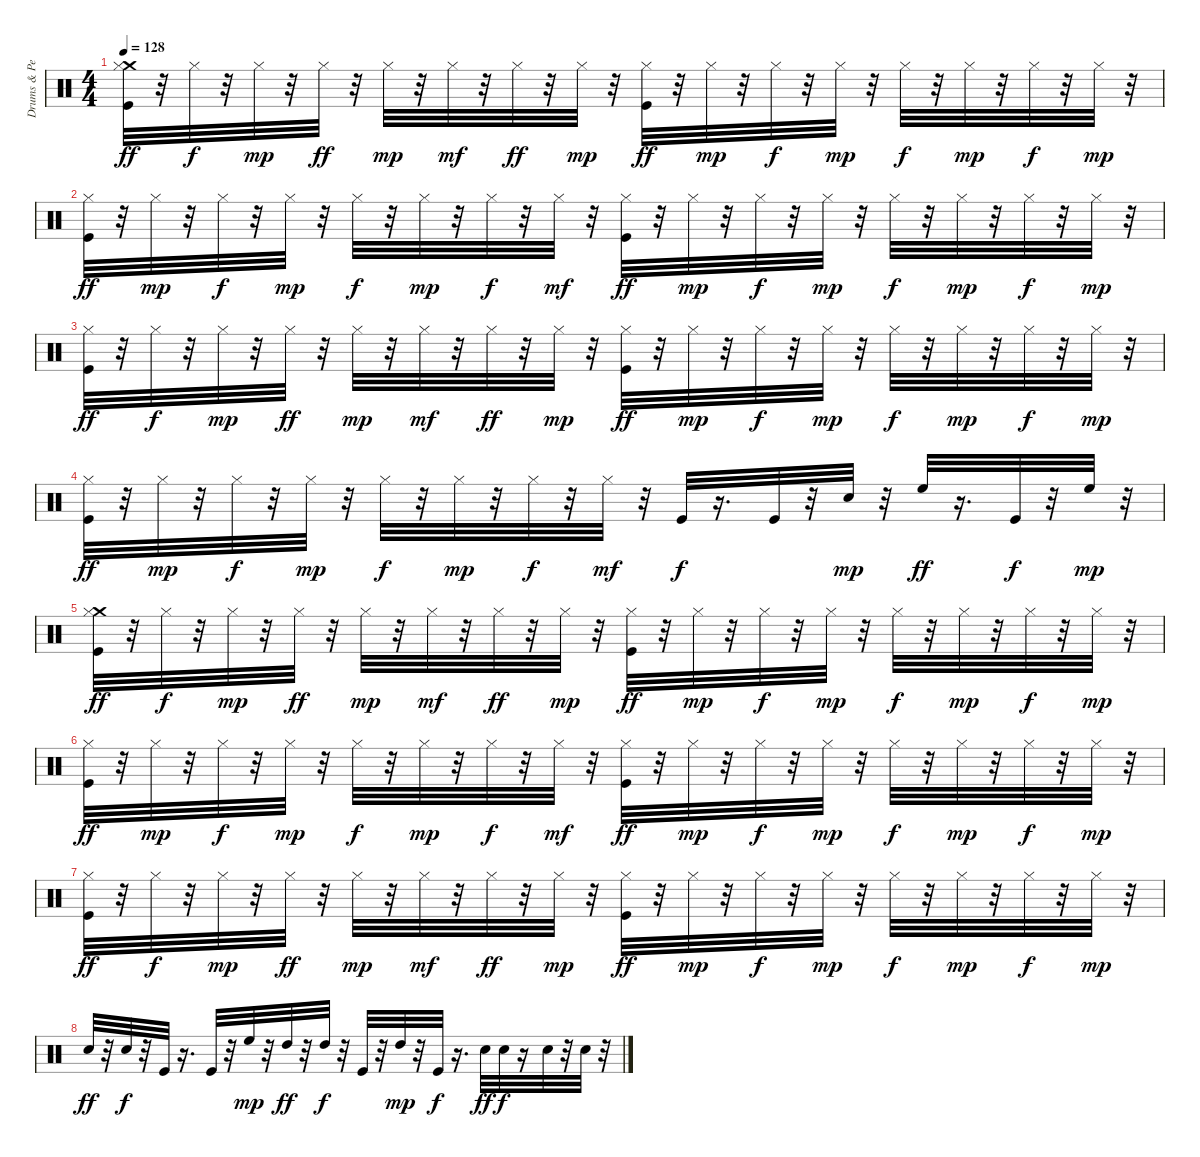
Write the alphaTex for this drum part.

\track ("Drums & Percussion" "Drums & Pe") {instrument percussion}
\staff {score}
\articulation defaults
\ts (4 4)
\tempo 128
\clef neutral
\ks c
("Crash medium (hit)" "Kick (hit)" "Hi-Hat (closed)").32{dy ff} r.32 "Hi-Hat (closed)".32{dy f} r.32 "Hi-Hat (closed)".32{dy mp} r.32 "Hi-Hat (closed)".32{dy ff} r.32 "Hi-Hat (closed)".32{dy mp} r.32 "Hi-Hat (closed)".32{dy mf} r.32 "Hi-Hat (closed)".32{dy ff} r.32 "Hi-Hat (closed)".32{dy mp} r.32 ("Kick (hit)" "Hi-Hat (closed)").32{dy ff} r.32 "Hi-Hat (closed)".32{dy mp} r.32 "Hi-Hat (closed)".32{dy f} r.32 "Hi-Hat (closed)".32{dy mp} r.32 "Hi-Hat (closed)".32{dy f} r.32 "Hi-Hat (closed)".32{dy mp} r.32 "Hi-Hat (closed)".32{dy f} r.32 "Hi-Hat (closed)".32{dy mp} r.32 |
("Kick (hit)" "Hi-Hat (closed)").32{dy ff} r.32 "Hi-Hat (closed)".32{dy mp} r.32 "Hi-Hat (closed)".32{dy f} r.32 "Hi-Hat (closed)".32{dy mp} r.32 "Hi-Hat (closed)".32{dy f} r.32 "Hi-Hat (closed)".32{dy mp} r.32 "Hi-Hat (closed)".32{dy f} r.32 "Hi-Hat (closed)".32{dy mf} r.32 ("Kick (hit)" "Hi-Hat (closed)").32{dy ff} r.32 "Hi-Hat (closed)".32{dy mp} r.32 "Hi-Hat (closed)".32{dy f} r.32 "Hi-Hat (closed)".32{dy mp} r.32 "Hi-Hat (closed)".32{dy f} r.32 "Hi-Hat (closed)".32{dy mp} r.32 "Hi-Hat (closed)".32{dy f} r.32 "Hi-Hat (closed)".32{dy mp} r.32 |
("Kick (hit)" "Hi-Hat (closed)").32{dy ff} r.32 "Hi-Hat (closed)".32{dy f} r.32 "Hi-Hat (closed)".32{dy mp} r.32 "Hi-Hat (closed)".32{dy ff} r.32 "Hi-Hat (closed)".32{dy mp} r.32 "Hi-Hat (closed)".32{dy mf} r.32 "Hi-Hat (closed)".32{dy ff} r.32 "Hi-Hat (closed)".32{dy mp} r.32 ("Kick (hit)" "Hi-Hat (closed)").32{dy ff} r.32 "Hi-Hat (closed)".32{dy mp} r.32 "Hi-Hat (closed)".32{dy f} r.32 "Hi-Hat (closed)".32{dy mp} r.32 "Hi-Hat (closed)".32{dy f} r.32 "Hi-Hat (closed)".32{dy mp} r.32 "Hi-Hat (closed)".32{dy f} r.32 "Hi-Hat (closed)".32{dy mp} r.32 |
("Kick (hit)" "Hi-Hat (closed)").32{dy ff} r.32 "Hi-Hat (closed)".32{dy mp} r.32 "Hi-Hat (closed)".32{dy f} r.32 "Hi-Hat (closed)".32{dy mp} r.32 "Hi-Hat (closed)".32{dy f} r.32 "Hi-Hat (closed)".32{dy mp} r.32 "Hi-Hat (closed)".32{dy f} r.32 "Hi-Hat (closed)".32{dy mf} r.32 "Kick (hit)".32{dy f} r.16{d} "Kick (hit)".32 r.32 "Electric Snare (hit)".32{dy mp} r.32 "High Floor Tom (hit)".32{dy ff} r.16{d} "Kick (hit)".32{dy f} r.32 "High Floor Tom (hit)".32{dy mp} r.32 |
("Crash medium (hit)" "Kick (hit)" "Hi-Hat (closed)").32{dy ff} r.32 "Hi-Hat (closed)".32{dy f} r.32 "Hi-Hat (closed)".32{dy mp} r.32 "Hi-Hat (closed)".32{dy ff} r.32 "Hi-Hat (closed)".32{dy mp} r.32 "Hi-Hat (closed)".32{dy mf} r.32 "Hi-Hat (closed)".32{dy ff} r.32 "Hi-Hat (closed)".32{dy mp} r.32 ("Kick (hit)" "Hi-Hat (closed)").32{dy ff} r.32 "Hi-Hat (closed)".32{dy mp} r.32 "Hi-Hat (closed)".32{dy f} r.32 "Hi-Hat (closed)".32{dy mp} r.32 "Hi-Hat (closed)".32{dy f} r.32 "Hi-Hat (closed)".32{dy mp} r.32 "Hi-Hat (closed)".32{dy f} r.32 "Hi-Hat (closed)".32{dy mp} r.32 |
("Kick (hit)" "Hi-Hat (closed)").32{dy ff} r.32 "Hi-Hat (closed)".32{dy mp} r.32 "Hi-Hat (closed)".32{dy f} r.32 "Hi-Hat (closed)".32{dy mp} r.32 "Hi-Hat (closed)".32{dy f} r.32 "Hi-Hat (closed)".32{dy mp} r.32 "Hi-Hat (closed)".32{dy f} r.32 "Hi-Hat (closed)".32{dy mf} r.32 ("Kick (hit)" "Hi-Hat (closed)").32{dy ff} r.32 "Hi-Hat (closed)".32{dy mp} r.32 "Hi-Hat (closed)".32{dy f} r.32 "Hi-Hat (closed)".32{dy mp} r.32 "Hi-Hat (closed)".32{dy f} r.32 "Hi-Hat (closed)".32{dy mp} r.32 "Hi-Hat (closed)".32{dy f} r.32 "Hi-Hat (closed)".32{dy mp} r.32 |
("Kick (hit)" "Hi-Hat (closed)").32{dy ff} r.32 "Hi-Hat (closed)".32{dy f} r.32 "Hi-Hat (closed)".32{dy mp} r.32 "Hi-Hat (closed)".32{dy ff} r.32 "Hi-Hat (closed)".32{dy mp} r.32 "Hi-Hat (closed)".32{dy mf} r.32 "Hi-Hat (closed)".32{dy ff} r.32 "Hi-Hat (closed)".32{dy mp} r.32 ("Kick (hit)" "Hi-Hat (closed)").32{dy ff} r.32 "Hi-Hat (closed)".32{dy mp} r.32 "Hi-Hat (closed)".32{dy f} r.32 "Hi-Hat (closed)".32{dy mp} r.32 "Hi-Hat (closed)".32{dy f} r.32 "Hi-Hat (closed)".32{dy mp} r.32 "Hi-Hat (closed)".32{dy f} r.32 "Hi-Hat (closed)".32{dy mp} r.32 |
"Electric Snare (hit)".32{dy ff} r.32 "Electric Snare (hit)".32{dy f} r.32 "Kick (hit)".32 r.16{d} "Kick (hit)".32 r.32 "High Floor Tom (hit)".32{dy mp} r.32 "High Tom (hit)".32{dy ff} r.32 "High Tom (hit)".32{dy f} r.32 "Kick (hit)".32 r.32 "High Tom (hit)".32{dy mp} r.32 "Kick (hit)".32{dy f} r.16{d} "Electric Snare (hit)".32{dy ff} "Electric Snare (hit)".32{dy f} r.16 "Electric Snare (hit)".32 r.32 "Electric Snare (hit)".32 r.32
